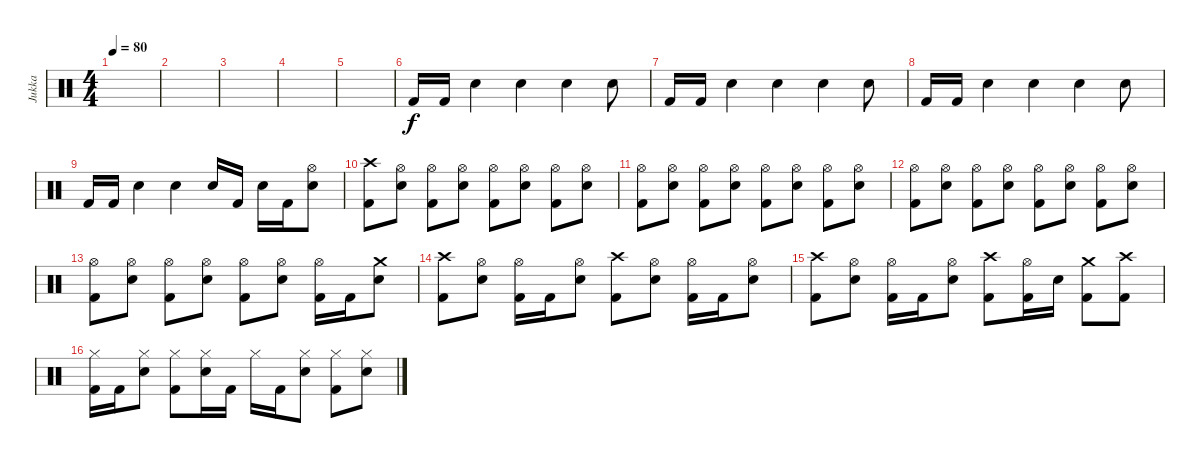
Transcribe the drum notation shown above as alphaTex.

\track ("Jukka" "Jukka") {instrument percussion}
\staff {score}
\articulation defaults
\ts (4 4)
\tempo 80
\clef neutral
\ks c
|
|
|
|
|
"Kick (hit) 2".16 "Kick (hit) 2".16 "Electric Snare (hit)".4 "Electric Snare (hit)".4 "Electric Snare (hit)".4 "Electric Snare (hit)".8 |
"Kick (hit) 2".16 "Kick (hit) 2".16 "Electric Snare (hit)".4 "Electric Snare (hit)".4 "Electric Snare (hit)".4 "Electric Snare (hit)".8 |
"Kick (hit) 2".16 "Kick (hit) 2".16 "Electric Snare (hit)".4 "Electric Snare (hit)".4 "Electric Snare (hit)".4 "Electric Snare (hit)".8 |
"Kick (hit) 2".16 "Kick (hit) 2".16 "Electric Snare (hit)".4 "Electric Snare (hit)".4 "Electric Snare (hit)".16 "Kick (hit) 2".16 "Electric Snare (hit)".16 "Kick (hit) 2".16 ("Hi-Hat (open)" "Electric Snare (hit)").8 |
("Crash high (hit)" "Kick (hit) 2").8 ("Hi-Hat (open)" "Electric Snare (hit)").8 ("Hi-Hat (open)" "Kick (hit) 2").8 ("Hi-Hat (open)" "Electric Snare (hit)").8 ("Hi-Hat (open)" "Kick (hit) 2").8 ("Hi-Hat (open)" "Electric Snare (hit)").8 ("Hi-Hat (open)" "Kick (hit) 2").8 ("Hi-Hat (open)" "Electric Snare (hit)").8 |
("Hi-Hat (open)" "Kick (hit) 2").8 ("Hi-Hat (open)" "Electric Snare (hit)").8 ("Hi-Hat (open)" "Kick (hit) 2").8 ("Hi-Hat (open)" "Electric Snare (hit)").8 ("Hi-Hat (open)" "Kick (hit) 2").8 ("Hi-Hat (open)" "Electric Snare (hit)").8 ("Hi-Hat (open)" "Kick (hit) 2").8 ("Hi-Hat (open)" "Electric Snare (hit)").8 |
("Hi-Hat (open)" "Kick (hit) 2").8 ("Hi-Hat (open)" "Electric Snare (hit)").8 ("Hi-Hat (open)" "Kick (hit) 2").8 ("Hi-Hat (open)" "Electric Snare (hit)").8 ("Hi-Hat (open)" "Kick (hit) 2").8 ("Hi-Hat (open)" "Electric Snare (hit)").8 ("Hi-Hat (open)" "Kick (hit) 2").8 ("Hi-Hat (open)" "Electric Snare (hit)").8 |
("Hi-Hat (open)" "Kick (hit) 2").8 ("Hi-Hat (open)" "Electric Snare (hit)").8 ("Hi-Hat (open)" "Kick (hit) 2").8 ("Hi-Hat (open)" "Electric Snare (hit)").8 ("Hi-Hat (open)" "Kick (hit) 2").8 ("Hi-Hat (open)" "Electric Snare (hit)").8 ("Hi-Hat (open)" "Kick (hit) 2").16 "Kick (hit) 2".16 ("Crash medium (hit)" "Electric Snare (hit)").8 |
("Crash high (hit)" "Kick (hit) 2").8 ("Hi-Hat (open)" "Electric Snare (hit)").8 ("Hi-Hat (open)" "Kick (hit) 2").16 "Kick (hit) 2".16 ("Hi-Hat (open)" "Electric Snare (hit)").8 ("Crash high (hit)" "Kick (hit) 2").8 ("Hi-Hat (open)" "Electric Snare (hit)").8 ("Hi-Hat (open)" "Kick (hit) 2").16 "Kick (hit) 2".16 ("Hi-Hat (open)" "Electric Snare (hit)").8 |
("Crash high (hit)" "Kick (hit) 2").8 ("Hi-Hat (open)" "Electric Snare (hit)").8 ("Hi-Hat (open)" "Kick (hit) 2").16 "Kick (hit) 2".16 ("Hi-Hat (open)" "Electric Snare (hit)").8 ("Crash high (hit)" "Kick (hit) 2").8 ("Hi-Hat (open)" "Kick (hit) 2").16 "Electric Snare (hit)".16 ("Crash medium (hit)" "Kick (hit) 2").8 ("Crash high (hit)" "Kick (hit) 2").8 |
("Hi-Hat (closed)" "Kick (hit) 2").16 "Kick (hit) 2".16 ("Hi-Hat (closed)" "Electric Snare (hit)").8 ("Hi-Hat (closed)" "Kick (hit) 2").8 ("Hi-Hat (closed)" "Electric Snare (hit)").16 "Kick (hit) 2".16 "Hi-Hat (closed)".16 "Kick (hit) 2".16 ("Hi-Hat (closed)" "Electric Snare (hit)").8 ("Hi-Hat (closed)" "Kick (hit) 2").8 ("Hi-Hat (closed)" "Electric Snare (hit)").8
